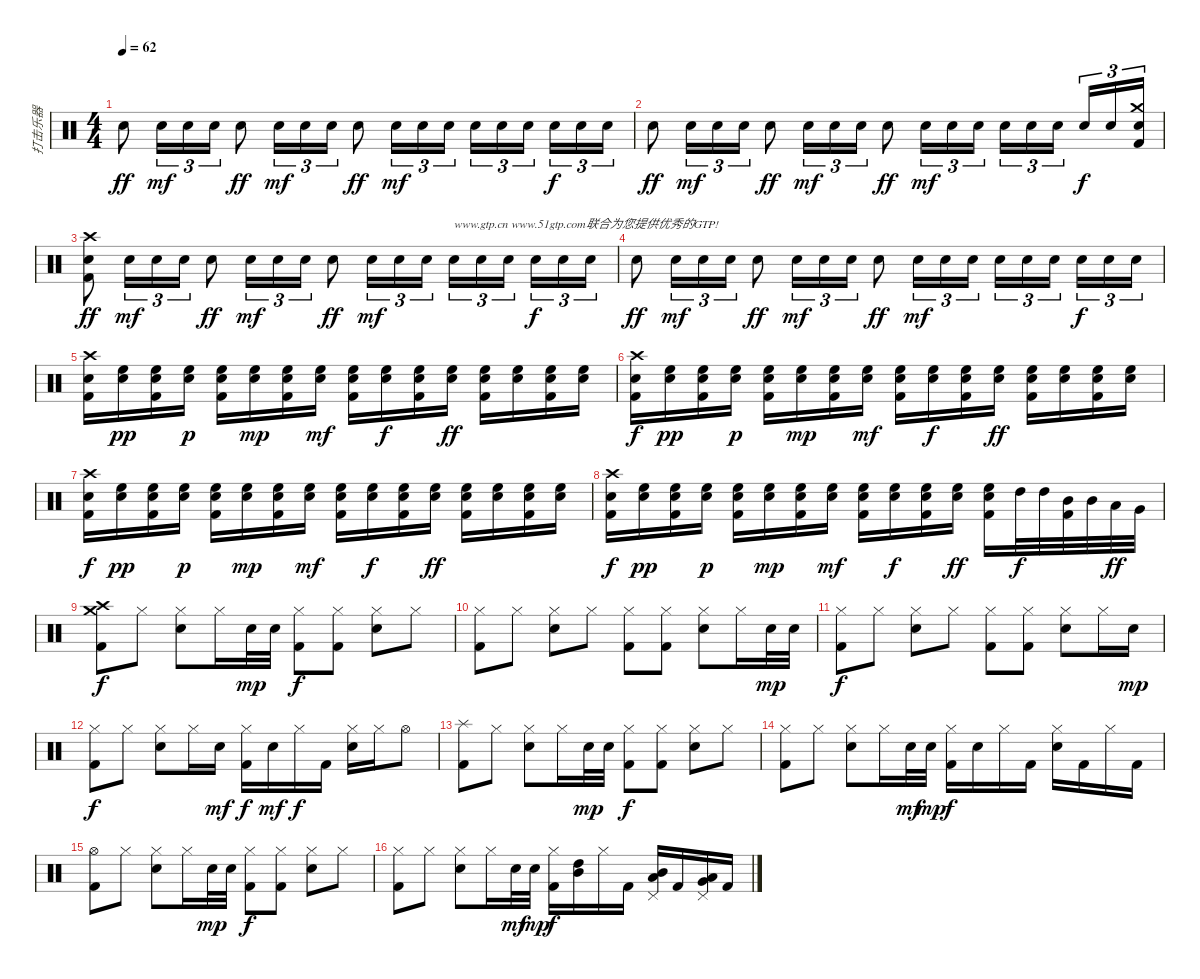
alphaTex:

\track ("打击乐器" "打击乐器") {instrument percussion}
\staff {score}
\articulation defaults
\ts (4 4)
\tempo 62
\clef neutral
\ks c "Electric Snare (hit)".8{dy ff} "Electric Snare (hit)".16{tu (3 2) dy mf} "Electric Snare (hit)".16{tu (3 2)} "Electric Snare (hit)".16{tu (3 2)} "Electric Snare (hit)".8{dy ff} "Electric Snare (hit)".16{tu (3 2) dy mf} "Electric Snare (hit)".16{tu (3 2)} "Electric Snare (hit)".16{tu (3 2)} "Electric Snare (hit)".8{dy ff} "Electric Snare (hit)".16{tu (3 2) dy mf} "Electric Snare (hit)".16{tu (3 2)} "Electric Snare (hit)".16{tu (3 2)} "Electric Snare (hit)".16{tu (3 2)} "Electric Snare (hit)".16{tu (3 2)} "Electric Snare (hit)".16{tu (3 2) beam splitsecondary} "Electric Snare (hit)".16{tu (3 2) dy f} "Electric Snare (hit)".16{tu (3 2)} "Electric Snare (hit)".16{tu (3 2)}
|
"Electric Snare (hit)".8{dy ff} "Electric Snare (hit)".16{tu (3 2) dy mf} "Electric Snare (hit)".16{tu (3 2)} "Electric Snare (hit)".16{tu (3 2)} "Electric Snare (hit)".8{dy ff} "Electric Snare (hit)".16{tu (3 2) dy mf} "Electric Snare (hit)".16{tu (3 2)} "Electric Snare (hit)".16{tu (3 2)} "Electric Snare (hit)".8{dy ff} "Electric Snare (hit)".16{tu (3 2) dy mf} "Electric Snare (hit)".16{tu (3 2)} "Electric Snare (hit)".16{tu (3 2)} "Electric Snare (hit)".16{tu (3 2)} "Electric Snare (hit)".16{tu (3 2)} "Electric Snare (hit)".16{tu (3 2) beam splitsecondary} "Electric Snare (hit)".16{tu (3 2) dy f} "Electric Snare (hit)".16{tu (3 2)} ("Crash medium (hit)" "Electric Snare (hit)" "Kick (hit) 2").16{tu (3 2)} |
("Crash high (hit)" "Electric Snare (hit)" "Kick (hit) 2").8{dy ff} "Electric Snare (hit)".16{tu (3 2) dy mf} "Electric Snare (hit)".16{tu (3 2)} "Electric Snare (hit)".16{tu (3 2)} "Electric Snare (hit)".8{dy ff} "Electric Snare (hit)".16{tu (3 2) dy mf} "Electric Snare (hit)".16{tu (3 2)} "Electric Snare (hit)".16{tu (3 2)} "Electric Snare (hit)".8{dy ff} "Electric Snare (hit)".16{tu (3 2) dy mf} "Electric Snare (hit)".16{tu (3 2)} "Electric Snare (hit)".16{tu (3 2)} "Electric Snare (hit)".16{tu (3 2) txt "www.gtp.cn www.51gtp.com联合为您提供优秀的GTP!"} "Electric Snare (hit)".16{tu (3 2)} "Electric Snare (hit)".16{tu (3 2) beam splitsecondary} "Electric Snare (hit)".16{tu (3 2) dy f} "Electric Snare (hit)".16{tu (3 2)} "Electric Snare (hit)".16{tu (3 2)} |
"Electric Snare (hit)".8{dy ff} "Electric Snare (hit)".16{tu (3 2) dy mf} "Electric Snare (hit)".16{tu (3 2)} "Electric Snare (hit)".16{tu (3 2)} "Electric Snare (hit)".8{dy ff} "Electric Snare (hit)".16{tu (3 2) dy mf} "Electric Snare (hit)".16{tu (3 2)} "Electric Snare (hit)".16{tu (3 2)} "Electric Snare (hit)".8{dy ff} "Electric Snare (hit)".16{tu (3 2) dy mf} "Electric Snare (hit)".16{tu (3 2)} "Electric Snare (hit)".16{tu (3 2)} "Electric Snare (hit)".16{tu (3 2)} "Electric Snare (hit)".16{tu (3 2)} "Electric Snare (hit)".16{tu (3 2) beam splitsecondary} "Electric Snare (hit)".16{tu (3 2) dy f} "Electric Snare (hit)".16{tu (3 2)} "Electric Snare (hit)".16{tu (3 2)} |
("Crash high (hit)" "Electric Snare (hit)" "Kick (hit) 2").16 ("Electric Snare (hit)" "High Floor Tom (hit)").16{dy pp} ("Electric Snare (hit)" "High Floor Tom (hit)" "Kick (hit) 2").16 ("Electric Snare (hit)" "High Floor Tom (hit)").16{dy p} ("Electric Snare (hit)" "High Floor Tom (hit)" "Kick (hit) 2").16 ("Electric Snare (hit)" "High Floor Tom (hit)").16{dy mp} ("Electric Snare (hit)" "High Floor Tom (hit)" "Kick (hit) 2").16 ("Electric Snare (hit)" "High Floor Tom (hit)").16{dy mf} ("Electric Snare (hit)" "High Floor Tom (hit)" "Kick (hit) 2").16 ("Electric Snare (hit)" "High Floor Tom (hit)").16{dy f} ("Electric Snare (hit)" "High Floor Tom (hit)" "Kick (hit) 2").16 ("Electric Snare (hit)" "High Floor Tom (hit)").16{dy ff} ("Electric Snare (hit)" "High Floor Tom (hit)" "Kick (hit) 2").16 ("Electric Snare (hit)" "High Floor Tom (hit)").16 ("Electric Snare (hit)" "High Floor Tom (hit)" "Kick (hit) 2").16 ("Electric Snare (hit)" "High Floor Tom (hit)").16 |
("Crash high (hit)" "Electric Snare (hit)" "Kick (hit) 2").16{dy f} ("Electric Snare (hit)" "High Floor Tom (hit)").16{dy pp} ("Electric Snare (hit)" "High Floor Tom (hit)" "Kick (hit) 2").16 ("Electric Snare (hit)" "High Floor Tom (hit)").16{dy p} ("Electric Snare (hit)" "High Floor Tom (hit)" "Kick (hit) 2").16 ("Electric Snare (hit)" "High Floor Tom (hit)").16{dy mp} ("Electric Snare (hit)" "High Floor Tom (hit)" "Kick (hit) 2").16 ("Electric Snare (hit)" "High Floor Tom (hit)").16{dy mf} ("Electric Snare (hit)" "High Floor Tom (hit)" "Kick (hit) 2").16 ("Electric Snare (hit)" "High Floor Tom (hit)").16{dy f} ("Electric Snare (hit)" "High Floor Tom (hit)" "Kick (hit) 2").16 ("Electric Snare (hit)" "High Floor Tom (hit)").16{dy ff} ("Electric Snare (hit)" "High Floor Tom (hit)" "Kick (hit) 2").16 ("Electric Snare (hit)" "High Floor Tom (hit)").16 ("Electric Snare (hit)" "High Floor Tom (hit)" "Kick (hit) 2").16 ("Electric Snare (hit)" "High Floor Tom (hit)").16 |
("Crash high (hit)" "Electric Snare (hit)" "Kick (hit) 2").16{dy f} ("Electric Snare (hit)" "High Floor Tom (hit)").16{dy pp} ("Electric Snare (hit)" "High Floor Tom (hit)" "Kick (hit) 2").16 ("Electric Snare (hit)" "High Floor Tom (hit)").16{dy p} ("Electric Snare (hit)" "High Floor Tom (hit)" "Kick (hit) 2").16 ("Electric Snare (hit)" "High Floor Tom (hit)").16{dy mp} ("Electric Snare (hit)" "High Floor Tom (hit)" "Kick (hit) 2").16 ("Electric Snare (hit)" "High Floor Tom (hit)").16{dy mf} ("Electric Snare (hit)" "High Floor Tom (hit)" "Kick (hit) 2").16 ("Electric Snare (hit)" "High Floor Tom (hit)").16{dy f} ("Electric Snare (hit)" "High Floor Tom (hit)" "Kick (hit) 2").16 ("Electric Snare (hit)" "High Floor Tom (hit)").16{dy ff} ("Electric Snare (hit)" "High Floor Tom (hit)" "Kick (hit) 2").16 ("Electric Snare (hit)" "High Floor Tom (hit)").16 ("Electric Snare (hit)" "High Floor Tom (hit)" "Kick (hit) 2").16 ("Electric Snare (hit)" "High Floor Tom (hit)").16 |
("Crash high (hit)" "Electric Snare (hit)" "Kick (hit) 2").16{dy f} ("Electric Snare (hit)" "High Floor Tom (hit)").16{dy pp} ("Electric Snare (hit)" "High Floor Tom (hit)" "Kick (hit) 2").16 ("Electric Snare (hit)" "High Floor Tom (hit)").16{dy p} ("Electric Snare (hit)" "High Floor Tom (hit)" "Kick (hit) 2").16 ("Electric Snare (hit)" "High Floor Tom (hit)").16{dy mp} ("Electric Snare (hit)" "High Floor Tom (hit)" "Kick (hit) 2").16 ("Electric Snare (hit)" "High Floor Tom (hit)").16{dy mf} ("Electric Snare (hit)" "High Floor Tom (hit)" "Kick (hit) 2").16 ("Electric Snare (hit)" "High Floor Tom (hit)").16{dy f} ("Electric Snare (hit)" "High Floor Tom (hit)" "Kick (hit) 2").16 ("Electric Snare (hit)" "High Floor Tom (hit)").16{dy ff} ("Electric Snare (hit)" "High Floor Tom (hit)" "Kick (hit) 2").16 "High Tom (hit)".32{dy f} "High Tom (hit)".32 ("Mid Tom (hit)" "Kick (hit) 2").32 "Mid Tom (hit)".32 "Low Tom (hit)".32{dy ff} "Very Low Tom (hit)".32 |
("Crash high (hit)" "Crash medium (hit)" "Kick (hit) 2").8{dy f} "Hi-Hat (closed)".8 ("Hi-Hat (closed)" "Electric Snare (hit)").8 "Hi-Hat (closed)".16 "Electric Snare (hit)".32{dy mp} "Electric Snare (hit)".32 ("Hi-Hat (closed)" "Kick (hit) 2").8{dy f} ("Hi-Hat (closed)" "Kick (hit) 2").8 ("Hi-Hat (closed)" "Electric Snare (hit)").8 "Hi-Hat (closed)".8 |
("Hi-Hat (closed)" "Kick (hit) 2").8 "Hi-Hat (closed)".8 ("Hi-Hat (closed)" "Electric Snare (hit)").8 "Hi-Hat (closed)".8 ("Hi-Hat (closed)" "Kick (hit) 2").8 ("Hi-Hat (closed)" "Kick (hit) 2").8 ("Hi-Hat (closed)" "Electric Snare (hit)").8 "Hi-Hat (closed)".16 "Electric Snare (hit)".32{dy mp} "Electric Snare (hit)".32 |
("Hi-Hat (closed)" "Kick (hit) 2").8{dy f} "Hi-Hat (closed)".8 ("Hi-Hat (closed)" "Electric Snare (hit)").8 "Hi-Hat (closed)".8 ("Hi-Hat (closed)" "Kick (hit) 2").8 ("Hi-Hat (closed)" "Kick (hit) 2").8 ("Hi-Hat (closed)" "Electric Snare (hit)").8 "Hi-Hat (closed)".16 "Electric Snare (hit)".16{dy mp} |
("Hi-Hat (closed)" "Kick (hit) 2").8{dy f} "Hi-Hat (closed)".8 ("Hi-Hat (closed)" "Electric Snare (hit)").8 "Hi-Hat (closed)".16 "Electric Snare (hit)".16{dy mf} ("Hi-Hat (closed)" "Kick (hit) 2").16{dy f} "Electric Snare (hit)".16{dy mf} "Hi-Hat (closed)".16{dy f} "Kick (hit) 2".16 ("Hi-Hat (closed)" "Electric Snare (hit)").16 "Hi-Hat (closed)".16 "Hi-Hat (open)".8 |
("Splash (hit)" "Kick (hit) 2").8 "Hi-Hat (closed)".8 ("Hi-Hat (closed)" "Electric Snare (hit)").8 "Hi-Hat (closed)".16 "Electric Snare (hit)".32{dy mp} "Electric Snare (hit)".32 ("Hi-Hat (closed)" "Kick (hit) 2").8{dy f} ("Hi-Hat (closed)" "Kick (hit) 2").8 ("Hi-Hat (closed)" "Electric Snare (hit)").8 "Hi-Hat (closed)".8 |
("Hi-Hat (closed)" "Kick (hit) 2").8 "Hi-Hat (closed)".8 ("Hi-Hat (closed)" "Electric Snare (hit)").8 "Hi-Hat (closed)".16 "Electric Snare (hit)".32{dy mf} "Electric Snare (hit)".32{dy mp} ("Hi-Hat (closed)" "Kick (hit) 2").16{dy f} "Electric Snare (hit)".16 "Hi-Hat (closed)".16 "Kick (hit) 2".16 ("Hi-Hat (closed)" "Electric Snare (hit)").16 "Kick (hit) 2".16 "Hi-Hat (closed)".16 "Kick (hit) 2".16 |
("Hi-Hat (open)" "Kick (hit) 2").8 "Hi-Hat (closed)".8 ("Hi-Hat (closed)" "Electric Snare (hit)").8 "Hi-Hat (closed)".16 "Electric Snare (hit)".32{dy mp} "Electric Snare (hit)".32 ("Hi-Hat (closed)" "Kick (hit) 2").8{dy f} ("Hi-Hat (closed)" "Kick (hit) 2").8 ("Hi-Hat (closed)" "Electric Snare (hit)").8 "Hi-Hat (closed)".8 |
("Hi-Hat (closed)" "Kick (hit) 2").8 "Hi-Hat (closed)".8 ("Hi-Hat (closed)" "Electric Snare (hit)").8 "Hi-Hat (closed)".16 "Electric Snare (hit)".32{dy mf} "Electric Snare (hit)".32{dy mp} ("Hi-Hat (closed)" "Kick (hit) 2").16{dy f} ("Mid Tom (hit)" "High Tom (hit)").16 "Hi-Hat (closed)".16 "Kick (hit) 2".16 ("Pedal Hi-Hat (hit)" "Low Tom (hit)" "Mid Tom (hit)").16 "Kick (hit) 2".16 ("Pedal Hi-Hat (hit)" "Very Low Tom (hit)" "Low Tom (hit)").16 "Kick (hit) 2".16
